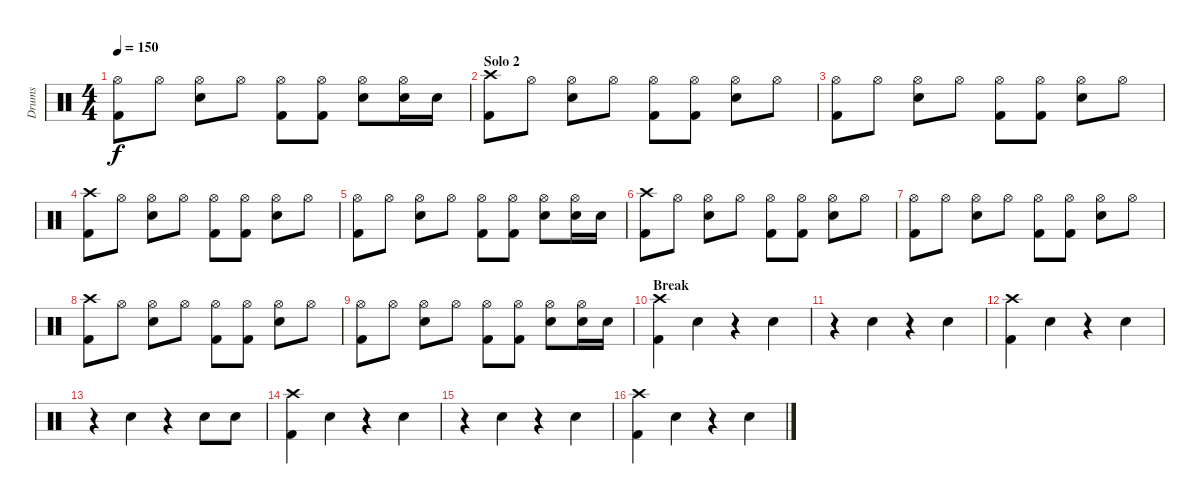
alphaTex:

\track ("Drums" "Drums") {instrument percussion}
\staff {score}
\articulation defaults
\ts (4 4)
\tempo 150
\clef neutral
\ks c
("Hi-Hat (open)" "Kick (hit) 2").8{dy f} "Hi-Hat (open)".8 ("Hi-Hat (open)" "Snare (hit) 2").8 "Hi-Hat (open)".8 ("Hi-Hat (open)" "Kick (hit) 2").8 ("Hi-Hat (open)" "Kick (hit) 2").8 ("Hi-Hat (open)" "Snare (hit) 2").8 ("Hi-Hat (open)" "Snare (hit) 2").16 "Snare (hit) 2".16 |
\section ("" "Solo 2")
("Crash high (hit)" "Kick (hit) 2").8 "Hi-Hat (open)".8 ("Hi-Hat (open)" "Snare (hit) 2").8 "Hi-Hat (open)".8 ("Hi-Hat (open)" "Kick (hit) 2").8 ("Hi-Hat (open)" "Kick (hit) 2").8 ("Hi-Hat (open)" "Snare (hit) 2").8 "Hi-Hat (open)".8 |
("Hi-Hat (open)" "Kick (hit) 2").8 "Hi-Hat (open)".8 ("Hi-Hat (open)" "Snare (hit) 2").8 "Hi-Hat (open)".8 ("Hi-Hat (open)" "Kick (hit) 2").8 ("Hi-Hat (open)" "Kick (hit) 2").8 ("Hi-Hat (open)" "Snare (hit) 2").8 "Hi-Hat (open)".8 |
("Crash high (hit)" "Kick (hit) 2").8 "Hi-Hat (open)".8 ("Hi-Hat (open)" "Snare (hit) 2").8 "Hi-Hat (open)".8 ("Hi-Hat (open)" "Kick (hit) 2").8 ("Hi-Hat (open)" "Kick (hit) 2").8 ("Hi-Hat (open)" "Snare (hit) 2").8 "Hi-Hat (open)".8 |
("Hi-Hat (open)" "Kick (hit) 2").8 "Hi-Hat (open)".8 ("Hi-Hat (open)" "Snare (hit) 2").8 "Hi-Hat (open)".8 ("Hi-Hat (open)" "Kick (hit) 2").8 ("Hi-Hat (open)" "Kick (hit) 2").8 ("Hi-Hat (open)" "Snare (hit) 2").8 ("Hi-Hat (open)" "Snare (hit) 2").16 "Snare (hit) 2".16 |
("Crash high (hit)" "Kick (hit) 2").8 "Hi-Hat (open)".8 ("Hi-Hat (open)" "Snare (hit) 2").8 "Hi-Hat (open)".8 ("Hi-Hat (open)" "Kick (hit) 2").8 ("Hi-Hat (open)" "Kick (hit) 2").8 ("Hi-Hat (open)" "Snare (hit) 2").8 "Hi-Hat (open)".8 |
("Hi-Hat (open)" "Kick (hit) 2").8 "Hi-Hat (open)".8 ("Hi-Hat (open)" "Snare (hit) 2").8 "Hi-Hat (open)".8 ("Hi-Hat (open)" "Kick (hit) 2").8 ("Hi-Hat (open)" "Kick (hit) 2").8 ("Hi-Hat (open)" "Snare (hit) 2").8 "Hi-Hat (open)".8 |
("Crash high (hit)" "Kick (hit) 2").8 "Hi-Hat (open)".8 ("Hi-Hat (open)" "Snare (hit) 2").8 "Hi-Hat (open)".8 ("Hi-Hat (open)" "Kick (hit) 2").8 ("Hi-Hat (open)" "Kick (hit) 2").8 ("Hi-Hat (open)" "Snare (hit) 2").8 "Hi-Hat (open)".8 |
("Hi-Hat (open)" "Kick (hit) 2").8 "Hi-Hat (open)".8 ("Hi-Hat (open)" "Snare (hit) 2").8 "Hi-Hat (open)".8 ("Hi-Hat (open)" "Kick (hit) 2").8 ("Hi-Hat (open)" "Kick (hit) 2").8 ("Hi-Hat (open)" "Snare (hit) 2").8 ("Hi-Hat (open)" "Snare (hit) 2").16 "Snare (hit) 2".16 |
\section ("" "Break")
("Crash high (hit)" "Kick (hit) 2").4 "Snare (hit) 2".4 r.4 "Snare (hit) 2".4 |
r.4 "Snare (hit) 2".4 r.4 "Snare (hit) 2".4 |
("Crash high (hit)" "Kick (hit) 2").4 "Snare (hit) 2".4 r.4 "Snare (hit) 2".4 |
r.4 "Snare (hit) 2".4 r.4 "Snare (hit) 2".8 "Snare (hit) 2".8 |
("Crash high (hit)" "Kick (hit) 2").4 "Snare (hit) 2".4 r.4 "Snare (hit) 2".4 |
r.4 "Snare (hit) 2".4 r.4 "Snare (hit) 2".4 |
("Crash high (hit)" "Kick (hit) 2").4 "Snare (hit) 2".4 r.4 "Snare (hit) 2".4
